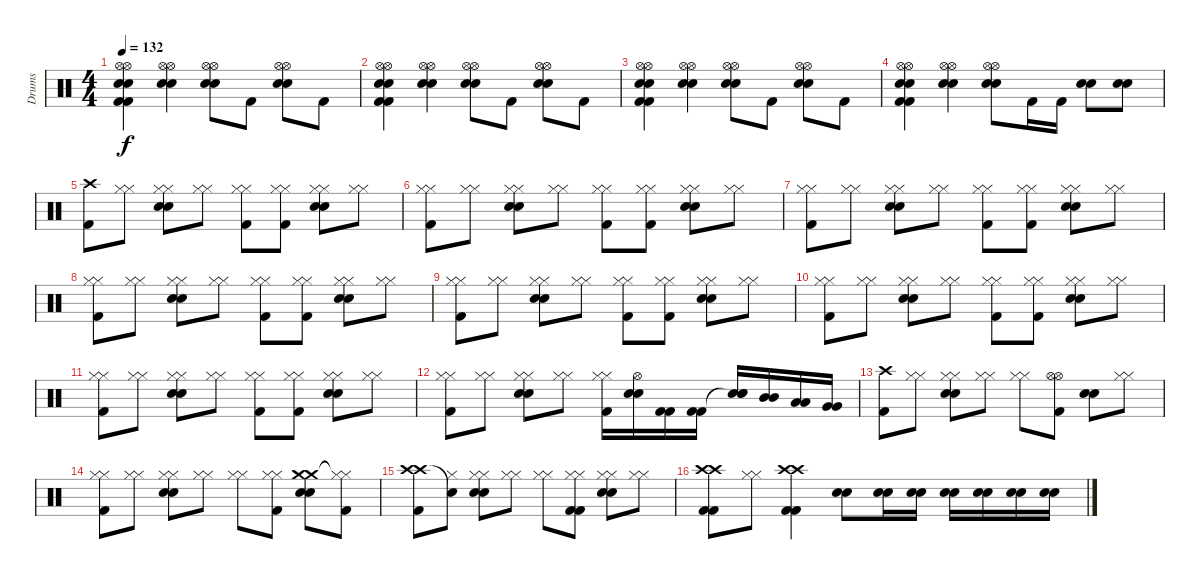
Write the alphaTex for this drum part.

\track ("Drums" "Drums") {instrument percussion}
\staff {score}
\articulation defaults
\ts (4 4)
\tempo 132
\clef neutral
\ks c
("Hi-Hat (open)" "Hi-Hat (open)" "Electric Snare (hit)" "Electric Snare (hit)" "Kick (hit) 2" "Kick (hit) 2").4{dy f} ("Hi-Hat (open)" "Hi-Hat (open)" "Electric Snare (hit)" "Electric Snare (hit)").4 ("Hi-Hat (open)" "Hi-Hat (open)" "Electric Snare (hit)" "Electric Snare (hit)").8 "Kick (hit) 2".8 ("Hi-Hat (open)" "Hi-Hat (open)" "Electric Snare (hit)" "Electric Snare (hit)").8 "Kick (hit) 2".8 |
("Hi-Hat (open)" "Hi-Hat (open)" "Electric Snare (hit)" "Electric Snare (hit)" "Kick (hit) 2" "Kick (hit) 2").4 ("Hi-Hat (open)" "Hi-Hat (open)" "Electric Snare (hit)" "Electric Snare (hit)").4 ("Hi-Hat (open)" "Hi-Hat (open)" "Electric Snare (hit)" "Electric Snare (hit)").8 "Kick (hit) 2".8 ("Hi-Hat (open)" "Hi-Hat (open)" "Electric Snare (hit)" "Electric Snare (hit)").8 "Kick (hit) 2".8 |
("Hi-Hat (open)" "Hi-Hat (open)" "Electric Snare (hit)" "Electric Snare (hit)" "Kick (hit) 2" "Kick (hit) 2").4 ("Hi-Hat (open)" "Hi-Hat (open)" "Electric Snare (hit)" "Electric Snare (hit)").4 ("Hi-Hat (open)" "Hi-Hat (open)" "Electric Snare (hit)" "Electric Snare (hit)").8 "Kick (hit) 2".8 ("Hi-Hat (open)" "Hi-Hat (open)" "Electric Snare (hit)" "Electric Snare (hit)").8 "Kick (hit) 2".8 |
("Hi-Hat (open)" "Hi-Hat (open)" "Electric Snare (hit)" "Electric Snare (hit)" "Kick (hit) 2" "Kick (hit) 2").4 ("Hi-Hat (open)" "Hi-Hat (open)" "Electric Snare (hit)" "Electric Snare (hit)").4 ("Hi-Hat (open)" "Hi-Hat (open)" "Electric Snare (hit)" "Electric Snare (hit)").8 "Kick (hit) 2".16 "Kick (hit) 2".16 ("Electric Snare (hit)" "Electric Snare (hit)").8 ("Electric Snare (hit)" "Electric Snare (hit)").8 |
("Crash high (hit)" "Kick (hit) 2").8 ("Hi-Hat (closed)" "Hi-Hat (closed)").8 ("Hi-Hat (closed)" "Hi-Hat (closed)" "Electric Snare (hit)" "Electric Snare (hit)").8 ("Hi-Hat (closed)" "Hi-Hat (closed)").8 ("Hi-Hat (closed)" "Hi-Hat (closed)" "Kick (hit) 2").8 ("Hi-Hat (closed)" "Hi-Hat (closed)" "Kick (hit) 2").8 ("Hi-Hat (closed)" "Hi-Hat (closed)" "Electric Snare (hit)" "Electric Snare (hit)").8 ("Hi-Hat (closed)" "Hi-Hat (closed)").8 |
("Hi-Hat (closed)" "Hi-Hat (closed)" "Kick (hit) 2").8 ("Hi-Hat (closed)" "Hi-Hat (closed)").8 ("Hi-Hat (closed)" "Hi-Hat (closed)" "Electric Snare (hit)" "Electric Snare (hit)").8 ("Hi-Hat (closed)" "Hi-Hat (closed)").8 ("Hi-Hat (closed)" "Hi-Hat (closed)" "Kick (hit) 2").8 ("Hi-Hat (closed)" "Hi-Hat (closed)" "Kick (hit) 2").8 ("Hi-Hat (closed)" "Hi-Hat (closed)" "Electric Snare (hit)" "Electric Snare (hit)").8 ("Hi-Hat (closed)" "Hi-Hat (closed)").8 |
("Hi-Hat (closed)" "Hi-Hat (closed)" "Kick (hit) 2").8 ("Hi-Hat (closed)" "Hi-Hat (closed)").8 ("Hi-Hat (closed)" "Hi-Hat (closed)" "Electric Snare (hit)" "Electric Snare (hit)").8 ("Hi-Hat (closed)" "Hi-Hat (closed)").8 ("Hi-Hat (closed)" "Hi-Hat (closed)" "Kick (hit) 2").8 ("Hi-Hat (closed)" "Hi-Hat (closed)" "Kick (hit) 2").8 ("Hi-Hat (closed)" "Hi-Hat (closed)" "Electric Snare (hit)" "Electric Snare (hit)").8 ("Hi-Hat (closed)" "Hi-Hat (closed)").8 |
("Hi-Hat (closed)" "Hi-Hat (closed)" "Kick (hit) 2").8 ("Hi-Hat (closed)" "Hi-Hat (closed)").8 ("Hi-Hat (closed)" "Hi-Hat (closed)" "Electric Snare (hit)" "Electric Snare (hit)").8 ("Hi-Hat (closed)" "Hi-Hat (closed)").8 ("Hi-Hat (closed)" "Hi-Hat (closed)" "Kick (hit) 2").8 ("Hi-Hat (closed)" "Hi-Hat (closed)" "Kick (hit) 2").8 ("Hi-Hat (closed)" "Hi-Hat (closed)" "Electric Snare (hit)" "Electric Snare (hit)").8 ("Hi-Hat (closed)" "Hi-Hat (closed)").8 |
("Hi-Hat (closed)" "Hi-Hat (closed)" "Kick (hit) 2").8 ("Hi-Hat (closed)" "Hi-Hat (closed)").8 ("Hi-Hat (closed)" "Hi-Hat (closed)" "Electric Snare (hit)" "Electric Snare (hit)").8 ("Hi-Hat (closed)" "Hi-Hat (closed)").8 ("Hi-Hat (closed)" "Hi-Hat (closed)" "Kick (hit) 2").8 ("Hi-Hat (closed)" "Hi-Hat (closed)" "Kick (hit) 2").8 ("Hi-Hat (closed)" "Hi-Hat (closed)" "Electric Snare (hit)" "Electric Snare (hit)").8 ("Hi-Hat (closed)" "Hi-Hat (closed)").8 |
("Hi-Hat (closed)" "Hi-Hat (closed)" "Kick (hit) 2").8 ("Hi-Hat (closed)" "Hi-Hat (closed)").8 ("Hi-Hat (closed)" "Hi-Hat (closed)" "Electric Snare (hit)" "Electric Snare (hit)").8 ("Hi-Hat (closed)" "Hi-Hat (closed)").8 ("Hi-Hat (closed)" "Hi-Hat (closed)" "Kick (hit) 2").8 ("Hi-Hat (closed)" "Hi-Hat (closed)" "Kick (hit) 2").8 ("Hi-Hat (closed)" "Hi-Hat (closed)" "Electric Snare (hit)" "Electric Snare (hit)").8 ("Hi-Hat (closed)" "Hi-Hat (closed)").8 |
("Hi-Hat (closed)" "Hi-Hat (closed)" "Kick (hit) 2").8 ("Hi-Hat (closed)" "Hi-Hat (closed)").8 ("Hi-Hat (closed)" "Hi-Hat (closed)" "Electric Snare (hit)" "Electric Snare (hit)").8 ("Hi-Hat (closed)" "Hi-Hat (closed)").8 ("Hi-Hat (closed)" "Hi-Hat (closed)" "Kick (hit) 2").8 ("Hi-Hat (closed)" "Hi-Hat (closed)" "Kick (hit) 2").8 ("Hi-Hat (closed)" "Hi-Hat (closed)" "Electric Snare (hit)" "Electric Snare (hit)").8 ("Hi-Hat (closed)" "Hi-Hat (closed)").8 |
("Hi-Hat (closed)" "Hi-Hat (closed)" "Kick (hit) 2").8 ("Hi-Hat (closed)" "Hi-Hat (closed)").8 ("Hi-Hat (closed)" "Hi-Hat (closed)" "Electric Snare (hit)" "Electric Snare (hit)").8 ("Hi-Hat (closed)" "Hi-Hat (closed)").8 ("Hi-Hat (closed)" "Hi-Hat (closed)" "Kick (hit) 2").16 ("Hi-Hat (open)" "Electric Snare (hit)" "Electric Snare (hit)").16 ("Kick (hit) 2" "Kick (hit) 2").16 ("Kick (hit) 2" "Kick (hit) 2").16 ("Snare (hit)"{t} "Electric Snare (hit)" "Electric Snare (hit)").16 ("Mid Tom (hit)" "Mid Tom (hit)").16 ("Low Tom (hit)" "Low Tom (hit)").16 ("Very Low Tom (hit)" "Very Low Tom (hit)").16 |
("Crash high (hit)" "Kick (hit) 2").8 ("Hi-Hat (closed)" "Hi-Hat (closed)").8 ("Hi-Hat (closed)" "Hi-Hat (closed)" "Electric Snare (hit)" "Electric Snare (hit)").8 ("Hi-Hat (closed)" "Hi-Hat (closed)").8 ("Hi-Hat (closed)" "Hi-Hat (closed)").8 ("Hi-Hat (open)" "Hi-Hat (open)" "Kick (hit) 2").8 ("Electric Snare (hit)" "Electric Snare (hit)").8 ("Hi-Hat (closed)" "Hi-Hat (closed)").8 |
("Hi-Hat (closed)" "Hi-Hat (closed)" "Kick (hit) 2").8 ("Hi-Hat (closed)" "Hi-Hat (closed)").8 ("Hi-Hat (closed)" "Hi-Hat (closed)" "Electric Snare (hit)" "Electric Snare (hit)").8 ("Hi-Hat (closed)" "Hi-Hat (closed)").8 ("Hi-Hat (closed)" "Hi-Hat (closed)").8 ("Hi-Hat (closed)" "Hi-Hat (closed)" "Kick (hit) 2").8 ("Crash medium (hit)" "Crash medium (hit)" "Electric Snare (hit)" "Electric Snare (hit)").8 ("Hi-Hat (closed)"{t} "Hi-Hat (closed)"{t} "Kick (hit) 2").8 |
("Crash high (hit)" "Crash high (hit)" "Kick (hit) 2").8 ("Snare (hit)"{t} "Hi-Hat (closed)").8 ("Hi-Hat (closed)" "Hi-Hat (closed)" "Electric Snare (hit)" "Electric Snare (hit)").8 ("Hi-Hat (closed)" "Hi-Hat (closed)").8 ("Hi-Hat (closed)" "Hi-Hat (closed)").8 ("Hi-Hat (closed)" "Hi-Hat (closed)" "Kick (hit) 2" "Kick (hit) 2").8 ("Hi-Hat (closed)" "Hi-Hat (closed)" "Electric Snare (hit)" "Electric Snare (hit)").8 ("Hi-Hat (closed)" "Hi-Hat (closed)").8 |
("Crash high (hit)" "Crash high (hit)" "Kick (hit) 2" "Kick (hit) 2").8 ("Hi-Hat (closed)" "Hi-Hat (closed)").8 ("Crash high (hit)" "Crash high (hit)" "Kick (hit) 2" "Kick (hit) 2").4 ("Electric Snare (hit)" "Electric Snare (hit)").8 ("Electric Snare (hit)" "Electric Snare (hit)").16 ("Electric Snare (hit)" "Electric Snare (hit)").16 ("Electric Snare (hit)" "Electric Snare (hit)").16 ("Electric Snare (hit)" "Electric Snare (hit)").16 ("Electric Snare (hit)" "Electric Snare (hit)").16 ("Electric Snare (hit)" "Electric Snare (hit)").16
